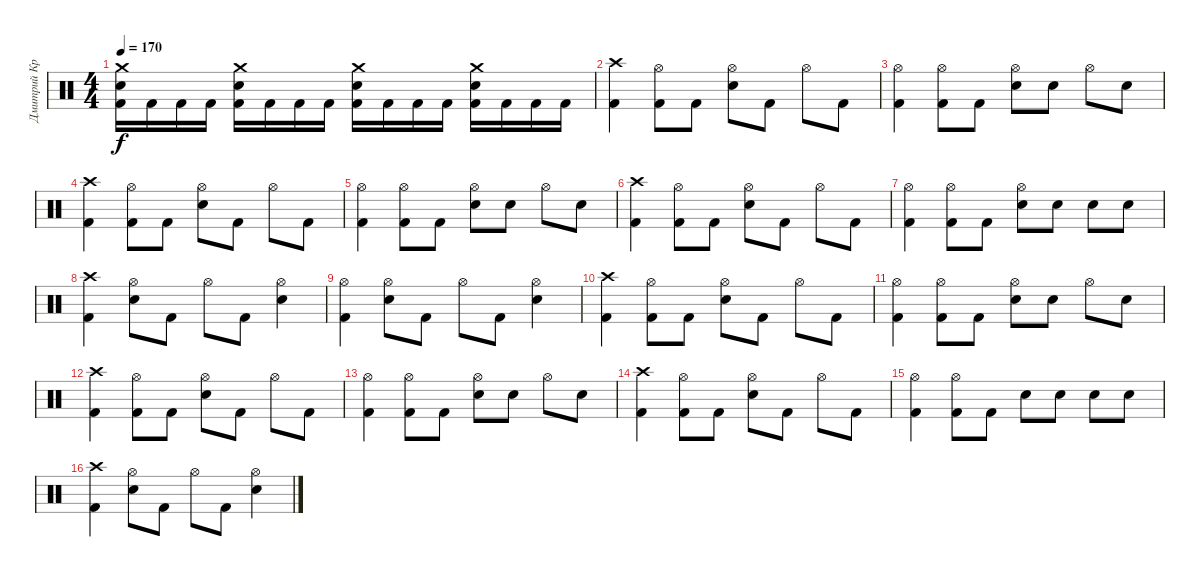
\track ("Дмитрий Кривенков" "Дмитрий Кр") {instrument percussion}
\staff {score}
\articulation defaults
\ts (4 4)
\tempo 170
\clef neutral
\ks c
("Crash medium (hit)" "Electric Snare (hit)" "Kick (hit) 2").16{dy f} "Kick (hit) 2".16 "Kick (hit) 2".16 "Kick (hit) 2".16 ("Crash medium (hit)" "Electric Snare (hit)" "Kick (hit) 2").16 "Kick (hit) 2".16 "Kick (hit) 2".16 "Kick (hit) 2".16 ("Crash medium (hit)" "Electric Snare (hit)" "Kick (hit) 2").16 "Kick (hit) 2".16 "Kick (hit) 2".16 "Kick (hit) 2".16 ("Crash medium (hit)" "Electric Snare (hit)" "Kick (hit) 2").16 "Kick (hit) 2".16 "Kick (hit) 2".16 "Kick (hit) 2".16 |
("Crash high (hit)" "Kick (hit) 2").4 ("Hi-Hat (open)" "Kick (hit) 2").8 "Kick (hit) 2".8 ("Hi-Hat (open)" "Electric Snare (hit)").8 "Kick (hit) 2".8 "Hi-Hat (open)".8 "Kick (hit) 2".8 |
("Hi-Hat (open)" "Kick (hit) 2").4 ("Hi-Hat (open)" "Kick (hit) 2").8 "Kick (hit) 2".8 ("Hi-Hat (open)" "Electric Snare (hit)").8 "Electric Snare (hit)".8 "Hi-Hat (open)".8 "Electric Snare (hit)".8 |
("Crash high (hit)" "Kick (hit) 2").4 ("Hi-Hat (open)" "Kick (hit) 2").8 "Kick (hit) 2".8 ("Hi-Hat (open)" "Electric Snare (hit)").8 "Kick (hit) 2".8 "Hi-Hat (open)".8 "Kick (hit) 2".8 |
("Hi-Hat (open)" "Kick (hit) 2").4 ("Hi-Hat (open)" "Kick (hit) 2").8 "Kick (hit) 2".8 ("Hi-Hat (open)" "Electric Snare (hit)").8 "Electric Snare (hit)".8 "Hi-Hat (open)".8 "Electric Snare (hit)".8 |
("Crash high (hit)" "Kick (hit) 2").4 ("Hi-Hat (open)" "Kick (hit) 2").8 "Kick (hit) 2".8 ("Hi-Hat (open)" "Electric Snare (hit)").8 "Kick (hit) 2".8 "Hi-Hat (open)".8 "Kick (hit) 2".8 |
("Hi-Hat (open)" "Kick (hit) 2").4 ("Hi-Hat (open)" "Kick (hit) 2").8 "Kick (hit) 2".8 ("Hi-Hat (open)" "Electric Snare (hit)").8 "Electric Snare (hit)".8 "Electric Snare (hit)".8 "Electric Snare (hit)".8 |
("Crash high (hit)" "Kick (hit) 2").4 ("Hi-Hat (open)" "Electric Snare (hit)").8 "Kick (hit) 2".8 "Hi-Hat (open)".8 "Kick (hit) 2".8 ("Hi-Hat (open)" "Electric Snare (hit)").4 |
("Hi-Hat (open)" "Kick (hit) 2").4 ("Hi-Hat (open)" "Electric Snare (hit)").8 "Kick (hit) 2".8 "Hi-Hat (open)".8 "Kick (hit) 2".8 ("Hi-Hat (open)" "Electric Snare (hit)").4 |
("Crash high (hit)" "Kick (hit) 2").4 ("Hi-Hat (open)" "Kick (hit) 2").8 "Kick (hit) 2".8 ("Hi-Hat (open)" "Electric Snare (hit)").8 "Kick (hit) 2".8 "Hi-Hat (open)".8 "Kick (hit) 2".8 |
("Hi-Hat (open)" "Kick (hit) 2").4 ("Hi-Hat (open)" "Kick (hit) 2").8 "Kick (hit) 2".8 ("Hi-Hat (open)" "Electric Snare (hit)").8 "Electric Snare (hit)".8 "Hi-Hat (open)".8 "Electric Snare (hit)".8 |
("Crash high (hit)" "Kick (hit) 2").4 ("Hi-Hat (open)" "Kick (hit) 2").8 "Kick (hit) 2".8 ("Hi-Hat (open)" "Electric Snare (hit)").8 "Kick (hit) 2".8 "Hi-Hat (open)".8 "Kick (hit) 2".8 |
("Hi-Hat (open)" "Kick (hit) 2").4 ("Hi-Hat (open)" "Kick (hit) 2").8 "Kick (hit) 2".8 ("Hi-Hat (open)" "Electric Snare (hit)").8 "Electric Snare (hit)".8 "Hi-Hat (open)".8 "Electric Snare (hit)".8 |
("Crash high (hit)" "Kick (hit) 2").4 ("Hi-Hat (open)" "Kick (hit) 2").8 "Kick (hit) 2".8 ("Hi-Hat (open)" "Electric Snare (hit)").8 "Kick (hit) 2".8 "Hi-Hat (open)".8 "Kick (hit) 2".8 |
("Hi-Hat (open)" "Kick (hit) 2").4 ("Hi-Hat (open)" "Kick (hit) 2").8 "Kick (hit) 2".8 "Electric Snare (hit)".8 "Electric Snare (hit)".8 "Electric Snare (hit)".8 "Electric Snare (hit)".8 |
("Crash high (hit)" "Kick (hit) 2").4 ("Hi-Hat (open)" "Electric Snare (hit)").8 "Kick (hit) 2".8 "Hi-Hat (open)".8 "Kick (hit) 2".8 ("Hi-Hat (open)" "Electric Snare (hit)").4
